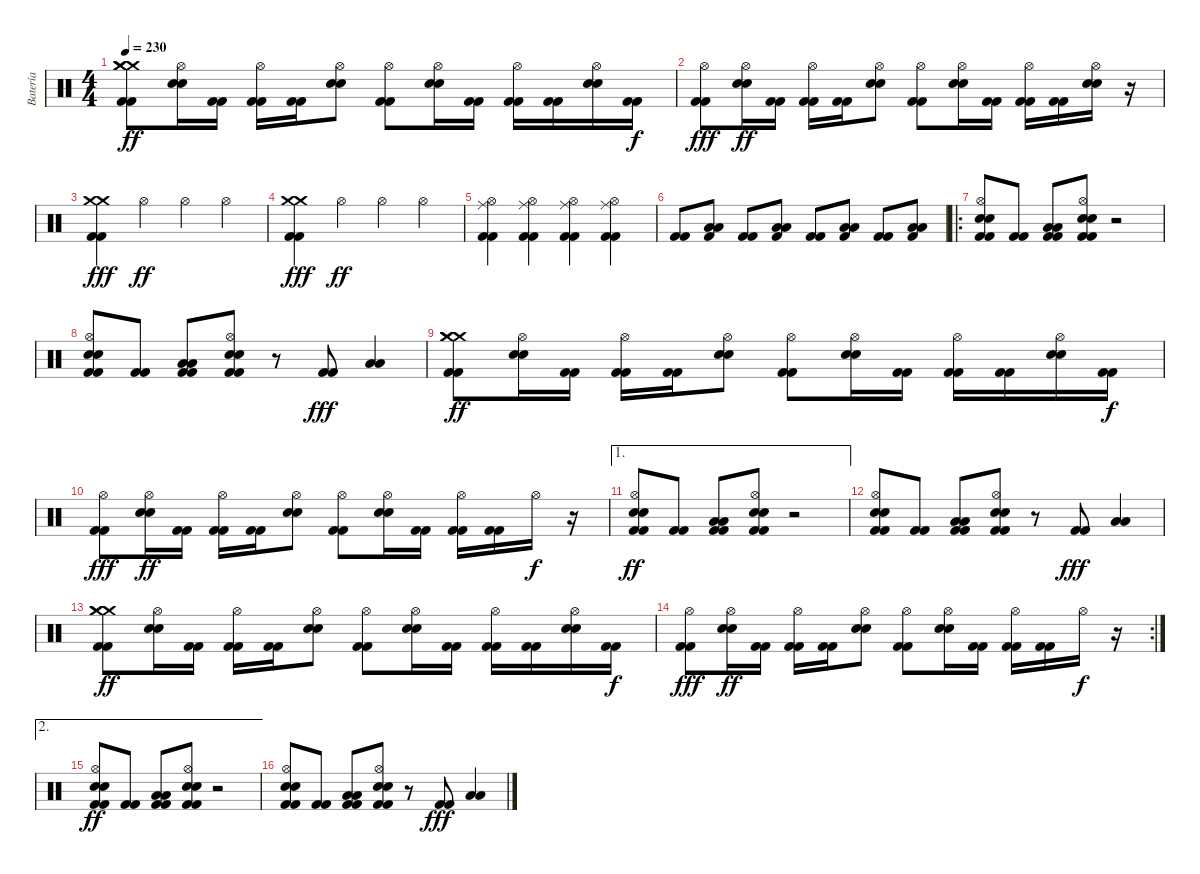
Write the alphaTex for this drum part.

\track ("Batería" "Batería") {instrument percussion}
\staff {score}
\articulation defaults
\ts (4 4)
\tempo 230
\clef neutral
\ks c
("Crash medium (hit)" "Crash medium (hit)" "Crash medium (hit)" "Kick (hit) 2" "Kick (hit) 2").8{dy ff} ("Hi-Hat (open)" "Electric Snare (hit)" "Electric Snare (hit)").16 ("Kick (hit) 2" "Kick (hit) 2").16 ("Hi-Hat (open)" "Kick (hit) 2" "Kick (hit) 2").16 ("Kick (hit) 2" "Kick (hit) 2").16 ("Hi-Hat (open)" "Electric Snare (hit)" "Electric Snare (hit)").8 ("Hi-Hat (open)" "Kick (hit) 2" "Kick (hit) 2").8 ("Hi-Hat (open)" "Electric Snare (hit)" "Electric Snare (hit)").16 ("Kick (hit) 2" "Kick (hit) 2").16 ("Hi-Hat (open)" "Kick (hit) 2" "Kick (hit) 2").16 ("Kick (hit) 2" "Kick (hit) 2").16 ("Hi-Hat (open)" "Electric Snare (hit)" "Electric Snare (hit)").16 ("Kick (hit) 2" "Kick (hit) 2").16{dy f} |
("Hi-Hat (open)" "Kick (hit) 2" "Kick (hit) 2").8{dy fff} ("Hi-Hat (open)" "Electric Snare (hit)" "Electric Snare (hit)").16{dy ff} ("Kick (hit) 2" "Kick (hit) 2").16 ("Hi-Hat (open)" "Kick (hit) 2" "Kick (hit) 2").16 ("Kick (hit) 2" "Kick (hit) 2").16 ("Hi-Hat (open)" "Electric Snare (hit)" "Electric Snare (hit)").8 ("Hi-Hat (open)" "Kick (hit) 2" "Kick (hit) 2").8 ("Hi-Hat (open)" "Electric Snare (hit)" "Electric Snare (hit)").16 ("Kick (hit) 2" "Kick (hit) 2").16 ("Hi-Hat (open)" "Kick (hit) 2" "Kick (hit) 2").16 ("Kick (hit) 2" "Kick (hit) 2").16 ("Hi-Hat (open)" "Electric Snare (hit)" "Electric Snare (hit)").16 r.16 |
("Crash medium (hit)" "Crash medium (hit)" "Kick (hit) 2" "Kick (hit) 2").4{dy fff} "Hi-Hat (open)".4{dy ff} "Hi-Hat (open)".4 "Hi-Hat (open)".4 |
("Crash medium (hit)" "Crash medium (hit)" "Kick (hit) 2" "Kick (hit) 2").4{dy fff} "Hi-Hat (open)".4{dy ff} "Hi-Hat (open)".4 "Hi-Hat (open)".4 |
("Ride (middle)" "Hi-Hat (open)" "Kick (hit) 2" "Kick (hit) 2").4 ("Ride (middle)" "Hi-Hat (open)" "Kick (hit) 2" "Kick (hit) 2").4 ("Ride (middle)" "Hi-Hat (open)" "Kick (hit) 2" "Kick (hit) 2").4 ("Ride (middle)" "Hi-Hat (open)" "Kick (hit) 2" "Kick (hit) 2").4 |
("Kick (hit) 2" "Kick (hit) 2").8 ("Low Floor Tom (hit)" "Low Floor Tom (hit)" "Kick (hit) 2").8 ("Kick (hit) 2" "Kick (hit) 2").8 ("Low Floor Tom (hit)" "Low Floor Tom (hit)" "Kick (hit) 2").8 ("Kick (hit) 2" "Kick (hit) 2").8 ("Low Floor Tom (hit)" "Low Floor Tom (hit)" "Kick (hit) 2").8 ("Kick (hit) 2" "Kick (hit) 2").8 ("Low Floor Tom (hit)" "Low Floor Tom (hit)" "Kick (hit) 2").8 |
\ro
("Hi-Hat (open)" "Electric Snare (hit)" "Electric Snare (hit)" "Kick (hit) 2" "Kick (hit) 2").8 ("Kick (hit) 2" "Kick (hit) 2").8 ("Low Tom (hit)" "Low Tom (hit)" "Kick (hit) 2" "Kick (hit) 2").8 ("Hi-Hat (open)" "Electric Snare (hit)" "Electric Snare (hit)" "Kick (hit) 2" "Kick (hit) 2").8 r.2 |
("Hi-Hat (open)" "Electric Snare (hit)" "Electric Snare (hit)" "Kick (hit) 2" "Kick (hit) 2").8 ("Kick (hit) 2" "Kick (hit) 2").8 ("Low Tom (hit)" "Low Tom (hit)" "Kick (hit) 2" "Kick (hit) 2").8 ("Hi-Hat (open)" "Electric Snare (hit)" "Electric Snare (hit)" "Kick (hit) 2" "Kick (hit) 2").8 r.8 ("Kick (hit) 2" "Kick (hit) 2").8{dy fff} ("Low Tom (hit)" "Low Tom (hit)").4 |
("Crash medium (hit)" "Crash medium (hit)" "Crash medium (hit)" "Kick (hit) 2" "Kick (hit) 2").8{dy ff} ("Hi-Hat (open)" "Electric Snare (hit)" "Electric Snare (hit)").16 ("Kick (hit) 2" "Kick (hit) 2").16 ("Hi-Hat (open)" "Kick (hit) 2" "Kick (hit) 2").16 ("Kick (hit) 2" "Kick (hit) 2").16 ("Hi-Hat (open)" "Electric Snare (hit)" "Electric Snare (hit)").8 ("Hi-Hat (open)" "Kick (hit) 2" "Kick (hit) 2").8 ("Hi-Hat (open)" "Electric Snare (hit)" "Electric Snare (hit)").16 ("Kick (hit) 2" "Kick (hit) 2").16 ("Hi-Hat (open)" "Kick (hit) 2" "Kick (hit) 2").16 ("Kick (hit) 2" "Kick (hit) 2").16 ("Hi-Hat (open)" "Electric Snare (hit)" "Electric Snare (hit)").16 ("Kick (hit) 2" "Kick (hit) 2").16{dy f} |
("Hi-Hat (open)" "Kick (hit) 2" "Kick (hit) 2").8{dy fff} ("Hi-Hat (open)" "Electric Snare (hit)" "Electric Snare (hit)").16{dy ff} ("Kick (hit) 2" "Kick (hit) 2").16 ("Hi-Hat (open)" "Kick (hit) 2" "Kick (hit) 2").16 ("Kick (hit) 2" "Kick (hit) 2").16 ("Hi-Hat (open)" "Electric Snare (hit)" "Electric Snare (hit)").8 ("Hi-Hat (open)" "Kick (hit) 2" "Kick (hit) 2").8 ("Hi-Hat (open)" "Electric Snare (hit)" "Electric Snare (hit)").16 ("Kick (hit) 2" "Kick (hit) 2").16 ("Hi-Hat (open)" "Kick (hit) 2" "Kick (hit) 2").16 ("Kick (hit) 2" "Kick (hit) 2").16 "Hi-Hat (open)".16{dy f} r.16 |
\ae 1
("Hi-Hat (open)" "Electric Snare (hit)" "Electric Snare (hit)" "Kick (hit) 2" "Kick (hit) 2").8{dy ff} ("Kick (hit) 2" "Kick (hit) 2").8 ("Low Tom (hit)" "Low Tom (hit)" "Kick (hit) 2" "Kick (hit) 2").8 ("Hi-Hat (open)" "Electric Snare (hit)" "Electric Snare (hit)" "Kick (hit) 2" "Kick (hit) 2").8 r.2 |
("Hi-Hat (open)" "Electric Snare (hit)" "Electric Snare (hit)" "Kick (hit) 2" "Kick (hit) 2").8 ("Kick (hit) 2" "Kick (hit) 2").8 ("Low Tom (hit)" "Low Tom (hit)" "Kick (hit) 2" "Kick (hit) 2").8 ("Hi-Hat (open)" "Electric Snare (hit)" "Electric Snare (hit)" "Kick (hit) 2" "Kick (hit) 2").8 r.8 ("Kick (hit) 2" "Kick (hit) 2").8{dy fff} ("Low Tom (hit)" "Low Tom (hit)").4 |
("Crash medium (hit)" "Crash medium (hit)" "Crash medium (hit)" "Kick (hit) 2" "Kick (hit) 2").8{dy ff} ("Hi-Hat (open)" "Electric Snare (hit)" "Electric Snare (hit)").16 ("Kick (hit) 2" "Kick (hit) 2").16 ("Hi-Hat (open)" "Kick (hit) 2" "Kick (hit) 2").16 ("Kick (hit) 2" "Kick (hit) 2").16 ("Hi-Hat (open)" "Electric Snare (hit)" "Electric Snare (hit)").8 ("Hi-Hat (open)" "Kick (hit) 2" "Kick (hit) 2").8 ("Hi-Hat (open)" "Electric Snare (hit)" "Electric Snare (hit)").16 ("Kick (hit) 2" "Kick (hit) 2").16 ("Hi-Hat (open)" "Kick (hit) 2" "Kick (hit) 2").16 ("Kick (hit) 2" "Kick (hit) 2").16 ("Hi-Hat (open)" "Electric Snare (hit)" "Electric Snare (hit)").16 ("Kick (hit) 2" "Kick (hit) 2").16{dy f} |
\rc 2
("Hi-Hat (open)" "Kick (hit) 2" "Kick (hit) 2").8{dy fff} ("Hi-Hat (open)" "Electric Snare (hit)" "Electric Snare (hit)").16{dy ff} ("Kick (hit) 2" "Kick (hit) 2").16 ("Hi-Hat (open)" "Kick (hit) 2" "Kick (hit) 2").16 ("Kick (hit) 2" "Kick (hit) 2").16 ("Hi-Hat (open)" "Electric Snare (hit)" "Electric Snare (hit)").8 ("Hi-Hat (open)" "Kick (hit) 2" "Kick (hit) 2").8 ("Hi-Hat (open)" "Electric Snare (hit)" "Electric Snare (hit)").16 ("Kick (hit) 2" "Kick (hit) 2").16 ("Hi-Hat (open)" "Kick (hit) 2" "Kick (hit) 2").16 ("Kick (hit) 2" "Kick (hit) 2").16 "Hi-Hat (open)".16{dy f} r.16 |
\ae 2
("Hi-Hat (open)" "Electric Snare (hit)" "Electric Snare (hit)" "Kick (hit) 2" "Kick (hit) 2").8{dy ff} ("Kick (hit) 2" "Kick (hit) 2").8 ("Low Tom (hit)" "Low Tom (hit)" "Kick (hit) 2" "Kick (hit) 2").8 ("Hi-Hat (open)" "Electric Snare (hit)" "Electric Snare (hit)" "Kick (hit) 2" "Kick (hit) 2").8 r.2 |
("Hi-Hat (open)" "Electric Snare (hit)" "Electric Snare (hit)" "Kick (hit) 2" "Kick (hit) 2").8 ("Kick (hit) 2" "Kick (hit) 2").8 ("Low Tom (hit)" "Low Tom (hit)" "Kick (hit) 2" "Kick (hit) 2").8 ("Hi-Hat (open)" "Electric Snare (hit)" "Electric Snare (hit)" "Kick (hit) 2" "Kick (hit) 2").8 r.8 ("Kick (hit) 2" "Kick (hit) 2").8{dy fff} ("Low Tom (hit)" "Low Tom (hit)").4
